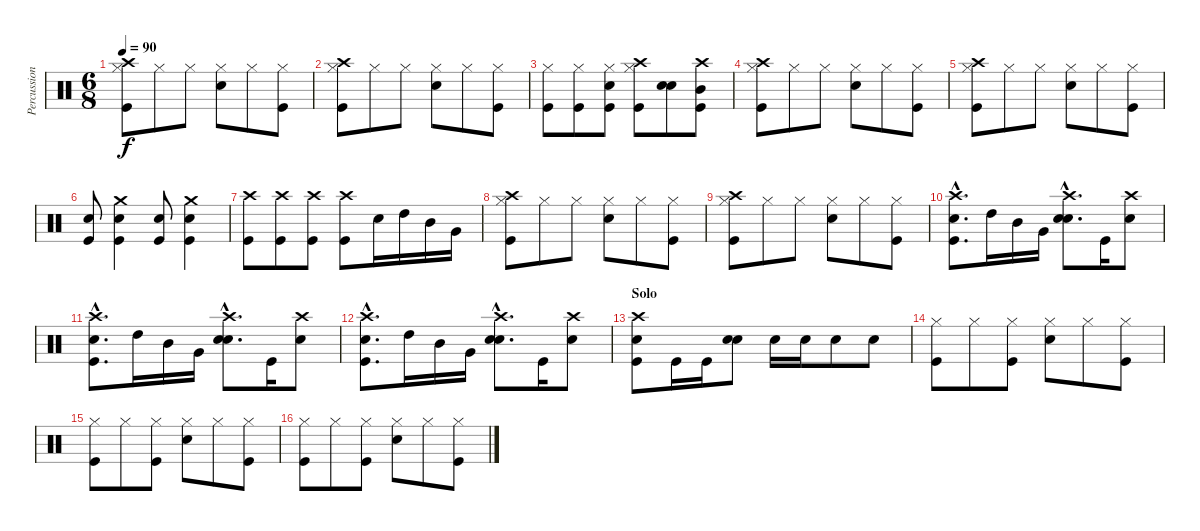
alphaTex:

\track ("Percussioni" "Percussion") {instrument percussion}
\staff {score}
\articulation defaults
\ts (6 8)
\tempo 90
\clef neutral
\ks c
("Crash high (hit)" "Hi-Hat (closed)" "Kick (hit)").8{dy f} "Hi-Hat (closed)".8 "Hi-Hat (closed)".8 ("Hi-Hat (closed)" "Snare (hit) 2").8 "Hi-Hat (closed)".8 ("Hi-Hat (closed)" "Kick (hit)").8 |
("Crash high (hit)" "Hi-Hat (closed)" "Kick (hit)").8 "Hi-Hat (closed)".8 "Hi-Hat (closed)".8 ("Hi-Hat (closed)" "Snare (hit) 2").8 "Hi-Hat (closed)".8 ("Hi-Hat (closed)" "Kick (hit)").8 |
("Hi-Hat (closed)" "Kick (hit)").8 ("Hi-Hat (closed)" "Kick (hit)").8 ("Hi-Hat (closed)" "Snare (hit) 2" "Kick (hit)").8 ("Crash high (hit)" "Hi-Hat (closed)" "Kick (hit)").8 ("Snare (hit) 2" "Snare (hit) 2").8 ("Crash high (hit)" "Mid Tom (hit)" "Kick (hit)").8 |
("Crash high (hit)" "Hi-Hat (closed)" "Kick (hit)").8 "Hi-Hat (closed)".8 "Hi-Hat (closed)".8 ("Hi-Hat (closed)" "Snare (hit) 2").8 "Hi-Hat (closed)".8 ("Hi-Hat (closed)" "Kick (hit)").8 |
("Crash high (hit)" "Hi-Hat (closed)" "Kick (hit)").8 "Hi-Hat (closed)".8 "Hi-Hat (closed)".8 ("Hi-Hat (closed)" "Snare (hit) 2").8 "Hi-Hat (closed)".8 ("Hi-Hat (closed)" "Kick (hit)").8 |
("Snare (hit) 2" "Kick (hit)").8 ("Crash medium (hit)" "Snare (hit) 2" "Kick (hit)").4 ("Snare (hit) 2" "Kick (hit)").8 ("Crash medium (hit)" "Snare (hit) 2" "Kick (hit)").4 |
("Crash high (hit)" "Kick (hit)").8 ("Crash high (hit)" "Kick (hit)").8 ("Crash high (hit)" "Kick (hit)").8 ("Crash high (hit)" "Kick (hit)").8 "Snare (hit) 2".16 "High Tom (hit)".16 "Mid Tom (hit)".16 "Very Low Tom (hit)".16 |
("Crash high (hit)" "Hi-Hat (closed)" "Kick (hit)").8 "Hi-Hat (closed)".8 "Hi-Hat (closed)".8 ("Hi-Hat (closed)" "Snare (hit) 2").8 "Hi-Hat (closed)".8 ("Hi-Hat (closed)" "Kick (hit)").8 |
("Crash high (hit)" "Hi-Hat (closed)" "Kick (hit)").8 "Hi-Hat (closed)".8 "Hi-Hat (closed)".8 ("Hi-Hat (closed)" "Snare (hit) 2").8 "Hi-Hat (closed)".8 ("Hi-Hat (closed)" "Kick (hit)").8 |
("Crash high (hit)"{hac} "Snare (hit) 2"{hac} "Kick (hit)"{hac}).8{d} "High Tom (hit)".16 "Mid Tom (hit)".16 "Very Low Tom (hit)".16 ("Crash high (hit)"{hac} "Snare (hit) 2"{hac} "Snare (hit) 2"{hac}).8{d} "Kick (hit)".16 ("Crash high (hit)" "Snare (hit) 2").8 |
("Crash high (hit)"{hac} "Snare (hit) 2"{hac} "Kick (hit)"{hac}).8{d} "High Tom (hit)".16 "Mid Tom (hit)".16 "Very Low Tom (hit)".16 ("Crash high (hit)"{hac} "Snare (hit) 2"{hac} "Snare (hit) 2"{hac}).8{d} "Kick (hit)".16 ("Crash high (hit)" "Snare (hit) 2").8 |
("Crash high (hit)"{hac} "Snare (hit) 2"{hac} "Kick (hit)"{hac}).8{d} "High Tom (hit)".16 "Mid Tom (hit)".16 "Very Low Tom (hit)".16 ("Crash high (hit)"{hac} "Snare (hit) 2"{hac} "Snare (hit) 2"{hac}).8{d} "Kick (hit)".16 ("Crash high (hit)" "Snare (hit) 2").8 |
\section ("" "Solo")
("Crash high (hit)" "Snare (hit) 2" "Kick (hit)").8 "Kick (hit)".16 "Kick (hit)".16 ("Snare (hit) 2" "Snare (hit) 2").8 "Snare (hit) 2".16 "Snare (hit) 2".16 "Snare (hit) 2".8 "Snare (hit) 2".8 |
("Hi-Hat (closed)" "Kick (hit)").8 "Hi-Hat (closed)".8 ("Hi-Hat (closed)" "Kick (hit)").8 ("Hi-Hat (closed)" "Snare (hit) 2").8 "Hi-Hat (closed)".8 ("Hi-Hat (closed)" "Kick (hit)").8 |
("Hi-Hat (closed)" "Kick (hit)").8 "Hi-Hat (closed)".8 ("Hi-Hat (closed)" "Kick (hit)").8 ("Hi-Hat (closed)" "Snare (hit) 2").8 "Hi-Hat (closed)".8 ("Hi-Hat (closed)" "Kick (hit)").8 |
("Hi-Hat (closed)" "Kick (hit)").8 "Hi-Hat (closed)".8 ("Hi-Hat (closed)" "Kick (hit)").8 ("Hi-Hat (closed)" "Snare (hit) 2").8 "Hi-Hat (closed)".8 ("Hi-Hat (closed)" "Kick (hit)").8
